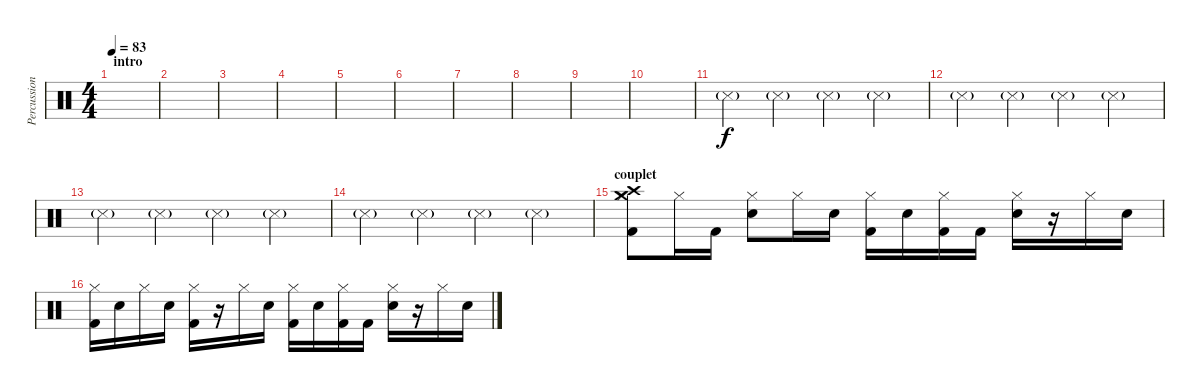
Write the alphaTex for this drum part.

\track ("Percussions" "Percussion") {instrument percussion}
\staff {score}
\articulation defaults
\ts (4 4)
\section ("" "intro")
\tempo 83
\clef neutral
\ks c
|
|
|
|
|
|
|
|
|
|
"Snare (side stick) 3"{g}.4 "Snare (side stick) 3"{g}.4 "Snare (side stick) 3"{g}.4 "Snare (side stick) 3"{g}.4 |
"Snare (side stick) 3"{g}.4 "Snare (side stick) 3"{g}.4 "Snare (side stick) 3"{g}.4 "Snare (side stick) 3"{g}.4 |
"Snare (side stick) 3"{g}.4 "Snare (side stick) 3"{g}.4 "Snare (side stick) 3"{g}.4 "Snare (side stick) 3"{g}.4 |
"Snare (side stick) 3"{g}.4 "Snare (side stick) 3"{g}.4 "Snare (side stick) 3"{g}.4 "Snare (side stick) 3"{g}.4 |
\section ("" "couplet")
("Hi-Hat (closed)" "Kick (hit) 2" "Crash high (hit)" "Crash medium (hit)").8{dy f} "Hi-Hat (closed)".16 "Kick (hit) 2".16 ("Hi-Hat (closed)" "Snare (hit) 2").8 "Hi-Hat (closed)".16 "Snare (hit) 2".16 ("Hi-Hat (closed)" "Kick (hit) 2").16 "Snare (hit) 2".16 ("Hi-Hat (closed)" "Kick (hit) 2").16 "Kick (hit) 2".16 ("Hi-Hat (closed)" "Snare (hit) 2").16 r.16 "Hi-Hat (closed)".16 "Snare (hit) 2".16 |
("Hi-Hat (closed)" "Kick (hit) 2").16 "Snare (hit) 2".16 "Hi-Hat (closed)".16 "Snare (hit) 2".16 ("Hi-Hat (closed)" "Kick (hit) 2").16 r.16 "Hi-Hat (closed)".16 "Snare (hit) 2".16 ("Hi-Hat (closed)" "Kick (hit) 2").16 "Snare (hit) 2".16 ("Hi-Hat (closed)" "Kick (hit) 2").16 "Kick (hit) 2".16 ("Hi-Hat (closed)" "Snare (hit) 2").16 r.16 "Hi-Hat (closed)".16 "Snare (hit) 2".16
